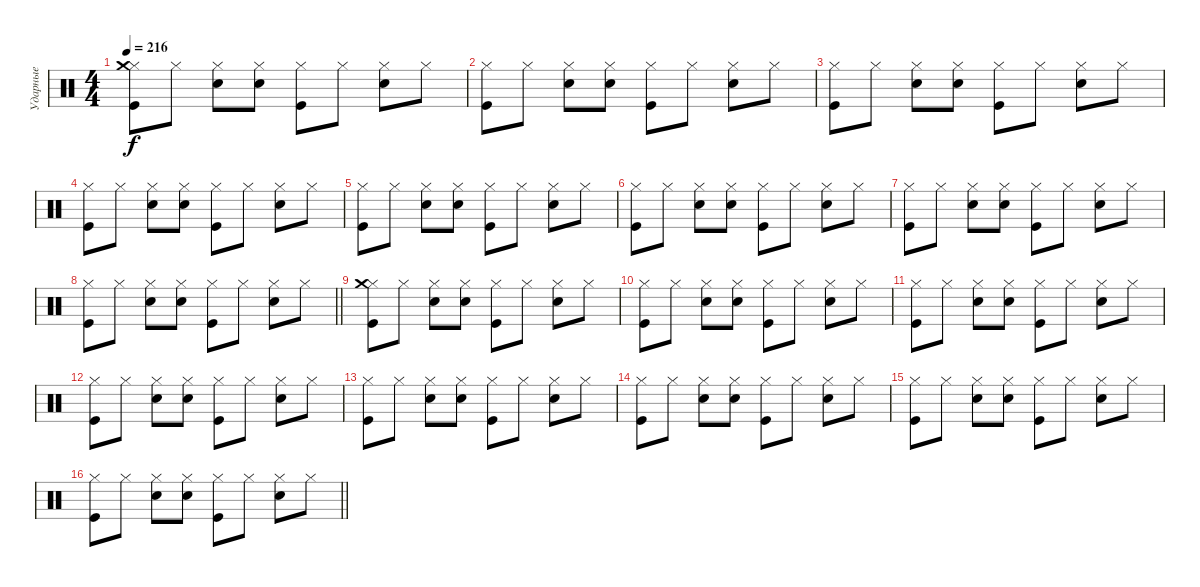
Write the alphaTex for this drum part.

\track ("Ударные" "Ударные") {instrument percussion}
\staff {score}
\articulation defaults
\ts (4 4)
\tempo 216
\clef neutral
\ks c
("Hi-Hat (closed)" "Kick (hit)" "Crash medium (hit)").8{dy f} "Hi-Hat (closed)".8 ("Hi-Hat (closed)" "Snare (hit) 2").8 ("Hi-Hat (closed)" "Snare (hit) 2").8 ("Hi-Hat (closed)" "Kick (hit)").8 "Hi-Hat (closed)".8 ("Hi-Hat (closed)" "Snare (hit) 2").8 "Hi-Hat (closed)".8 |
("Hi-Hat (closed)" "Kick (hit)").8 "Hi-Hat (closed)".8 ("Hi-Hat (closed)" "Snare (hit) 2").8 ("Hi-Hat (closed)" "Snare (hit) 2").8 ("Hi-Hat (closed)" "Kick (hit)").8 "Hi-Hat (closed)".8 ("Hi-Hat (closed)" "Snare (hit) 2").8 "Hi-Hat (closed)".8 |
("Hi-Hat (closed)" "Kick (hit)").8 "Hi-Hat (closed)".8 ("Hi-Hat (closed)" "Snare (hit) 2").8 ("Hi-Hat (closed)" "Snare (hit) 2").8 ("Hi-Hat (closed)" "Kick (hit)").8 "Hi-Hat (closed)".8 ("Hi-Hat (closed)" "Snare (hit) 2").8 "Hi-Hat (closed)".8 |
("Hi-Hat (closed)" "Kick (hit)").8 "Hi-Hat (closed)".8 ("Hi-Hat (closed)" "Snare (hit) 2").8 ("Hi-Hat (closed)" "Snare (hit) 2").8 ("Hi-Hat (closed)" "Kick (hit)").8 "Hi-Hat (closed)".8 ("Hi-Hat (closed)" "Snare (hit) 2").8 "Hi-Hat (closed)".8 |
("Hi-Hat (closed)" "Kick (hit)").8 "Hi-Hat (closed)".8 ("Hi-Hat (closed)" "Snare (hit) 2").8 ("Hi-Hat (closed)" "Snare (hit) 2").8 ("Hi-Hat (closed)" "Kick (hit)").8 "Hi-Hat (closed)".8 ("Hi-Hat (closed)" "Snare (hit) 2").8 "Hi-Hat (closed)".8 |
("Hi-Hat (closed)" "Kick (hit)").8 "Hi-Hat (closed)".8 ("Hi-Hat (closed)" "Snare (hit) 2").8 ("Hi-Hat (closed)" "Snare (hit) 2").8 ("Hi-Hat (closed)" "Kick (hit)").8 "Hi-Hat (closed)".8 ("Hi-Hat (closed)" "Snare (hit) 2").8 "Hi-Hat (closed)".8 |
("Hi-Hat (closed)" "Kick (hit)").8 "Hi-Hat (closed)".8 ("Hi-Hat (closed)" "Snare (hit) 2").8 ("Hi-Hat (closed)" "Snare (hit) 2").8 ("Hi-Hat (closed)" "Kick (hit)").8 "Hi-Hat (closed)".8 ("Hi-Hat (closed)" "Snare (hit) 2").8 "Hi-Hat (closed)".8 |
\barLineRight lightlight
("Hi-Hat (closed)" "Kick (hit)").8 "Hi-Hat (closed)".8 ("Hi-Hat (closed)" "Snare (hit) 2").8 ("Hi-Hat (closed)" "Snare (hit) 2").8 ("Hi-Hat (closed)" "Kick (hit)").8 "Hi-Hat (closed)".8 ("Hi-Hat (closed)" "Snare (hit) 2").8 "Hi-Hat (closed)".8 |
("Hi-Hat (closed)" "Kick (hit)" "Crash medium (hit)").8 "Hi-Hat (closed)".8 ("Hi-Hat (closed)" "Snare (hit) 2").8 ("Hi-Hat (closed)" "Snare (hit) 2").8 ("Hi-Hat (closed)" "Kick (hit)").8 "Hi-Hat (closed)".8 ("Hi-Hat (closed)" "Snare (hit) 2").8 "Hi-Hat (closed)".8 |
("Hi-Hat (closed)" "Kick (hit)").8 "Hi-Hat (closed)".8 ("Hi-Hat (closed)" "Snare (hit) 2").8 ("Hi-Hat (closed)" "Snare (hit) 2").8 ("Hi-Hat (closed)" "Kick (hit)").8 "Hi-Hat (closed)".8 ("Hi-Hat (closed)" "Snare (hit) 2").8 "Hi-Hat (closed)".8 |
("Hi-Hat (closed)" "Kick (hit)").8 "Hi-Hat (closed)".8 ("Hi-Hat (closed)" "Snare (hit) 2").8 ("Hi-Hat (closed)" "Snare (hit) 2").8 ("Hi-Hat (closed)" "Kick (hit)").8 "Hi-Hat (closed)".8 ("Hi-Hat (closed)" "Snare (hit) 2").8 "Hi-Hat (closed)".8 |
("Hi-Hat (closed)" "Kick (hit)").8 "Hi-Hat (closed)".8 ("Hi-Hat (closed)" "Snare (hit) 2").8 ("Hi-Hat (closed)" "Snare (hit) 2").8 ("Hi-Hat (closed)" "Kick (hit)").8 "Hi-Hat (closed)".8 ("Hi-Hat (closed)" "Snare (hit) 2").8 "Hi-Hat (closed)".8 |
("Hi-Hat (closed)" "Kick (hit)").8 "Hi-Hat (closed)".8 ("Hi-Hat (closed)" "Snare (hit) 2").8 ("Hi-Hat (closed)" "Snare (hit) 2").8 ("Hi-Hat (closed)" "Kick (hit)").8 "Hi-Hat (closed)".8 ("Hi-Hat (closed)" "Snare (hit) 2").8 "Hi-Hat (closed)".8 |
("Hi-Hat (closed)" "Kick (hit)").8 "Hi-Hat (closed)".8 ("Hi-Hat (closed)" "Snare (hit) 2").8 ("Hi-Hat (closed)" "Snare (hit) 2").8 ("Hi-Hat (closed)" "Kick (hit)").8 "Hi-Hat (closed)".8 ("Hi-Hat (closed)" "Snare (hit) 2").8 "Hi-Hat (closed)".8 |
("Hi-Hat (closed)" "Kick (hit)").8 "Hi-Hat (closed)".8 ("Hi-Hat (closed)" "Snare (hit) 2").8 ("Hi-Hat (closed)" "Snare (hit) 2").8 ("Hi-Hat (closed)" "Kick (hit)").8 "Hi-Hat (closed)".8 ("Hi-Hat (closed)" "Snare (hit) 2").8 "Hi-Hat (closed)".8 |
\barLineRight lightlight
("Hi-Hat (closed)" "Kick (hit)").8 "Hi-Hat (closed)".8 ("Hi-Hat (closed)" "Snare (hit) 2").8 ("Hi-Hat (closed)" "Snare (hit) 2").8 ("Hi-Hat (closed)" "Kick (hit)").8 "Hi-Hat (closed)".8 ("Hi-Hat (closed)" "Snare (hit) 2").8 "Hi-Hat (closed)".8
